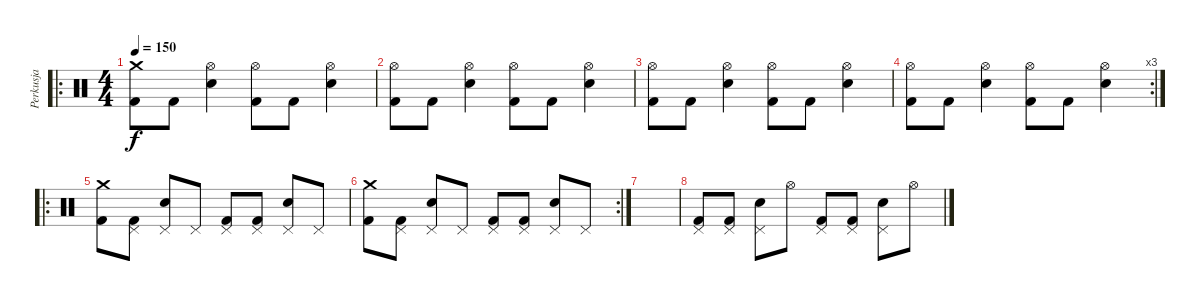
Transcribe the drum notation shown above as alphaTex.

\track ("Perkusja" "Perkusja") {instrument percussion}
\staff {score}
\articulation defaults
\ro
\ts (4 4)
\tempo 150
\clef neutral
\ks c
("Crash medium (hit)" "Kick (hit) 2").8{dy f} "Kick (hit) 2".8 ("Hi-Hat (open)" "Snare (hit) 2").4 ("Hi-Hat (open)" "Kick (hit) 2").8 "Kick (hit) 2".8 ("Hi-Hat (open)" "Snare (hit) 2").4 |
("Hi-Hat (open)" "Kick (hit) 2").8 "Kick (hit) 2".8 ("Hi-Hat (open)" "Snare (hit) 2").4 ("Hi-Hat (open)" "Kick (hit) 2").8 "Kick (hit) 2".8 ("Hi-Hat (open)" "Snare (hit) 2").4 |
("Hi-Hat (open)" "Kick (hit) 2").8 "Kick (hit) 2".8 ("Hi-Hat (open)" "Snare (hit) 2").4 ("Hi-Hat (open)" "Kick (hit) 2").8 "Kick (hit) 2".8 ("Hi-Hat (open)" "Snare (hit) 2").4 |
\rc 3
("Hi-Hat (open)" "Kick (hit) 2").8 "Kick (hit) 2".8 ("Hi-Hat (open)" "Snare (hit) 2").4 ("Hi-Hat (open)" "Kick (hit) 2").8 "Kick (hit) 2".8 ("Hi-Hat (open)" "Snare (hit) 2").4 |
\ro
("Crash medium (hit)" "Kick (hit) 2").8 ("Pedal Hi-Hat (hit)" "Kick (hit) 2").8 ("Pedal Hi-Hat (hit)" "Snare (hit) 2").8 "Pedal Hi-Hat (hit)".8 ("Pedal Hi-Hat (hit)" "Kick (hit) 2").8 ("Pedal Hi-Hat (hit)" "Kick (hit) 2").8 ("Pedal Hi-Hat (hit)" "Snare (hit) 2").8 "Pedal Hi-Hat (hit)".8 |
\rc 2
("Crash medium (hit)" "Kick (hit) 2").8 ("Pedal Hi-Hat (hit)" "Kick (hit) 2").8 ("Pedal Hi-Hat (hit)" "Snare (hit) 2").8 "Pedal Hi-Hat (hit)".8 ("Pedal Hi-Hat (hit)" "Kick (hit) 2").8 ("Pedal Hi-Hat (hit)" "Kick (hit) 2").8 ("Pedal Hi-Hat (hit)" "Snare (hit) 2").8 "Pedal Hi-Hat (hit)".8 |
|
("Pedal Hi-Hat (hit)" "Kick (hit) 2").8 ("Pedal Hi-Hat (hit)" "Kick (hit) 2").8 ("Pedal Hi-Hat (hit)" "Electric Snare (hit)").8 "Hi-Hat (open)".8 ("Pedal Hi-Hat (hit)" "Kick (hit) 2").8 ("Pedal Hi-Hat (hit)" "Kick (hit) 2").8 ("Pedal Hi-Hat (hit)" "Electric Snare (hit)").8 "Hi-Hat (open)".8
